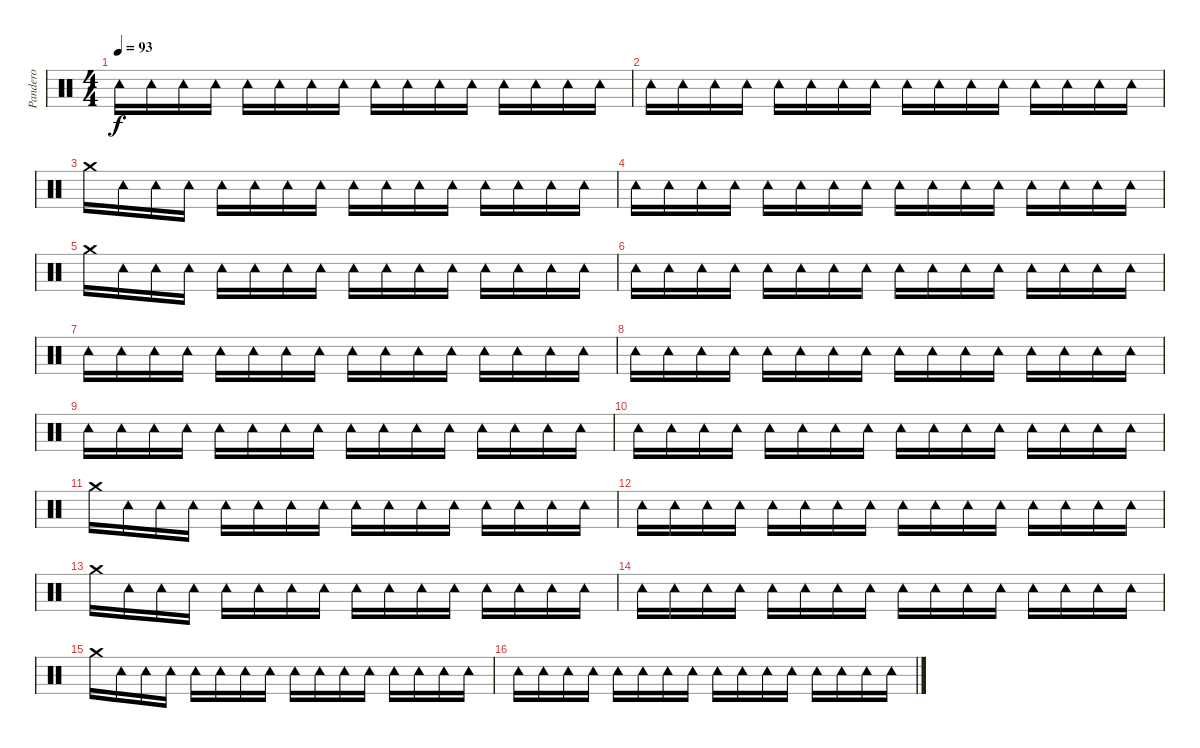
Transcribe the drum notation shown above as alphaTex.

\track ("Pandero" "Pandero") {instrument percussion bank 1}
\staff {score}
\articulation defaults
\ts (4 4)
\tempo 93
\clef neutral
\ks c "Tambourine (hit)".16{dy f} "Tambourine (hit)".16 "Tambourine (hit)".16 "Tambourine (hit)".16 "Tambourine (hit)".16 "Tambourine (hit)".16 "Tambourine (hit)".16 "Tambourine (hit)".16 "Tambourine (hit)".16 "Tambourine (hit)".16 "Tambourine (hit)".16 "Tambourine (hit)".16 "Tambourine (hit)".16 "Tambourine (hit)".16 "Tambourine (hit)".16 "Tambourine (hit)".16
|
"Tambourine (hit)".16 "Tambourine (hit)".16 "Tambourine (hit)".16 "Tambourine (hit)".16 "Tambourine (hit)".16 "Tambourine (hit)".16 "Tambourine (hit)".16 "Tambourine (hit)".16 "Tambourine (hit)".16 "Tambourine (hit)".16 "Tambourine (hit)".16 "Tambourine (hit)".16 "Tambourine (hit)".16 "Tambourine (hit)".16 "Tambourine (hit)".16 "Tambourine (hit)".16 |
"Crash medium (hit)".16 "Tambourine (hit)".16 "Tambourine (hit)".16 "Tambourine (hit)".16 "Tambourine (hit)".16 "Tambourine (hit)".16 "Tambourine (hit)".16 "Tambourine (hit)".16 "Tambourine (hit)".16 "Tambourine (hit)".16 "Tambourine (hit)".16 "Tambourine (hit)".16 "Tambourine (hit)".16 "Tambourine (hit)".16 "Tambourine (hit)".16 "Tambourine (hit)".16 |
"Tambourine (hit)".16 "Tambourine (hit)".16 "Tambourine (hit)".16 "Tambourine (hit)".16 "Tambourine (hit)".16 "Tambourine (hit)".16 "Tambourine (hit)".16 "Tambourine (hit)".16 "Tambourine (hit)".16 "Tambourine (hit)".16 "Tambourine (hit)".16 "Tambourine (hit)".16 "Tambourine (hit)".16 "Tambourine (hit)".16 "Tambourine (hit)".16 "Tambourine (hit)".16 |
"Crash medium (hit)".16 "Tambourine (hit)".16 "Tambourine (hit)".16 "Tambourine (hit)".16 "Tambourine (hit)".16 "Tambourine (hit)".16 "Tambourine (hit)".16 "Tambourine (hit)".16 "Tambourine (hit)".16 "Tambourine (hit)".16 "Tambourine (hit)".16 "Tambourine (hit)".16 "Tambourine (hit)".16 "Tambourine (hit)".16 "Tambourine (hit)".16 "Tambourine (hit)".16 |
"Tambourine (hit)".16 "Tambourine (hit)".16 "Tambourine (hit)".16 "Tambourine (hit)".16 "Tambourine (hit)".16 "Tambourine (hit)".16 "Tambourine (hit)".16 "Tambourine (hit)".16 "Tambourine (hit)".16 "Tambourine (hit)".16 "Tambourine (hit)".16 "Tambourine (hit)".16 "Tambourine (hit)".16 "Tambourine (hit)".16 "Tambourine (hit)".16 "Tambourine (hit)".16 |
"Tambourine (hit)".16 "Tambourine (hit)".16 "Tambourine (hit)".16 "Tambourine (hit)".16 "Tambourine (hit)".16 "Tambourine (hit)".16 "Tambourine (hit)".16 "Tambourine (hit)".16 "Tambourine (hit)".16 "Tambourine (hit)".16 "Tambourine (hit)".16 "Tambourine (hit)".16 "Tambourine (hit)".16 "Tambourine (hit)".16 "Tambourine (hit)".16 "Tambourine (hit)".16 |
"Tambourine (hit)".16 "Tambourine (hit)".16 "Tambourine (hit)".16 "Tambourine (hit)".16 "Tambourine (hit)".16 "Tambourine (hit)".16 "Tambourine (hit)".16 "Tambourine (hit)".16 "Tambourine (hit)".16 "Tambourine (hit)".16 "Tambourine (hit)".16 "Tambourine (hit)".16 "Tambourine (hit)".16 "Tambourine (hit)".16 "Tambourine (hit)".16 "Tambourine (hit)".16 |
"Tambourine (hit)".16 "Tambourine (hit)".16 "Tambourine (hit)".16 "Tambourine (hit)".16 "Tambourine (hit)".16 "Tambourine (hit)".16 "Tambourine (hit)".16 "Tambourine (hit)".16 "Tambourine (hit)".16 "Tambourine (hit)".16 "Tambourine (hit)".16 "Tambourine (hit)".16 "Tambourine (hit)".16 "Tambourine (hit)".16 "Tambourine (hit)".16 "Tambourine (hit)".16 |
"Tambourine (hit)".16 "Tambourine (hit)".16 "Tambourine (hit)".16 "Tambourine (hit)".16 "Tambourine (hit)".16 "Tambourine (hit)".16 "Tambourine (hit)".16 "Tambourine (hit)".16 "Tambourine (hit)".16 "Tambourine (hit)".16 "Tambourine (hit)".16 "Tambourine (hit)".16 "Tambourine (hit)".16 "Tambourine (hit)".16 "Tambourine (hit)".16 "Tambourine (hit)".16 |
"Crash medium (hit)".16 "Tambourine (hit)".16 "Tambourine (hit)".16 "Tambourine (hit)".16 "Tambourine (hit)".16 "Tambourine (hit)".16 "Tambourine (hit)".16 "Tambourine (hit)".16 "Tambourine (hit)".16 "Tambourine (hit)".16 "Tambourine (hit)".16 "Tambourine (hit)".16 "Tambourine (hit)".16 "Tambourine (hit)".16 "Tambourine (hit)".16 "Tambourine (hit)".16 |
"Tambourine (hit)".16 "Tambourine (hit)".16 "Tambourine (hit)".16 "Tambourine (hit)".16 "Tambourine (hit)".16 "Tambourine (hit)".16 "Tambourine (hit)".16 "Tambourine (hit)".16 "Tambourine (hit)".16 "Tambourine (hit)".16 "Tambourine (hit)".16 "Tambourine (hit)".16 "Tambourine (hit)".16 "Tambourine (hit)".16 "Tambourine (hit)".16 "Tambourine (hit)".16 |
"Crash medium (hit)".16 "Tambourine (hit)".16 "Tambourine (hit)".16 "Tambourine (hit)".16 "Tambourine (hit)".16 "Tambourine (hit)".16 "Tambourine (hit)".16 "Tambourine (hit)".16 "Tambourine (hit)".16 "Tambourine (hit)".16 "Tambourine (hit)".16 "Tambourine (hit)".16 "Tambourine (hit)".16 "Tambourine (hit)".16 "Tambourine (hit)".16 "Tambourine (hit)".16 |
"Tambourine (hit)".16 "Tambourine (hit)".16 "Tambourine (hit)".16 "Tambourine (hit)".16 "Tambourine (hit)".16 "Tambourine (hit)".16 "Tambourine (hit)".16 "Tambourine (hit)".16 "Tambourine (hit)".16 "Tambourine (hit)".16 "Tambourine (hit)".16 "Tambourine (hit)".16 "Tambourine (hit)".16 "Tambourine (hit)".16 "Tambourine (hit)".16 "Tambourine (hit)".16 |
"Crash medium (hit)".16 "Tambourine (hit)".16 "Tambourine (hit)".16 "Tambourine (hit)".16 "Tambourine (hit)".16 "Tambourine (hit)".16 "Tambourine (hit)".16 "Tambourine (hit)".16 "Tambourine (hit)".16 "Tambourine (hit)".16 "Tambourine (hit)".16 "Tambourine (hit)".16 "Tambourine (hit)".16 "Tambourine (hit)".16 "Tambourine (hit)".16 "Tambourine (hit)".16 |
"Tambourine (hit)".16 "Tambourine (hit)".16 "Tambourine (hit)".16 "Tambourine (hit)".16 "Tambourine (hit)".16 "Tambourine (hit)".16 "Tambourine (hit)".16 "Tambourine (hit)".16 "Tambourine (hit)".16 "Tambourine (hit)".16 "Tambourine (hit)".16 "Tambourine (hit)".16 "Tambourine (hit)".16 "Tambourine (hit)".16 "Tambourine (hit)".16 "Tambourine (hit)".16
